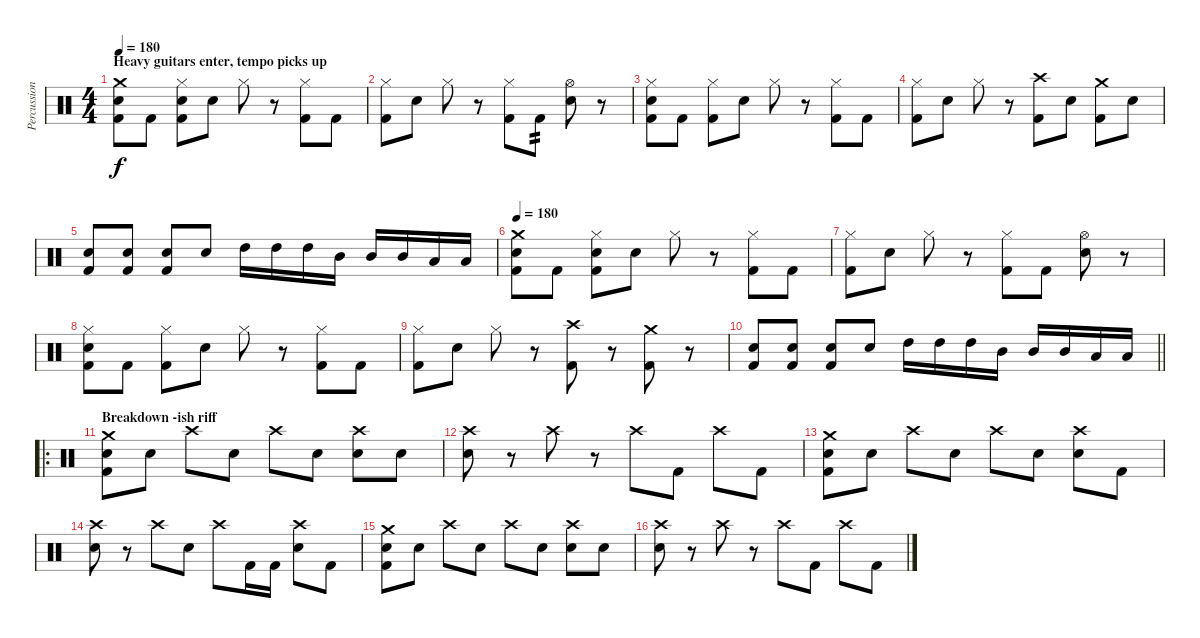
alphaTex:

\track ("Percussion" "Percussion") {instrument percussion}
\staff {score}
\articulation defaults
\ts (4 4)
\section ("" "Heavy guitars enter, tempo picks up")
\tempo 180
\clef neutral
\ks c
("Crash medium (hit)" "Snare (hit) 2" "Kick (hit) 2").8{dy f} "Kick (hit) 2".8 ("Hi-Hat (closed)" "Snare (hit) 2" "Kick (hit) 2").8 "Electric Snare (hit)".8 "Hi-Hat (closed)".8 r.8 ("Hi-Hat (closed)" "Kick (hit) 2").8 "Kick (hit) 2".8 |
("Hi-Hat (closed)" "Kick (hit) 2").8 "Electric Snare (hit)".8 "Hi-Hat (closed)".8 r.8 ("Hi-Hat (closed)" "Kick (hit) 2").8 "Kick (hit) 2".8{tp 2} ("Hi-Hat (open)" "Electric Snare (hit)").8 r.8 |
("Hi-Hat (closed)" "Snare (hit) 2" "Kick (hit) 2").8 "Kick (hit) 2".8 ("Hi-Hat (closed)" "Kick (hit) 2").8 "Electric Snare (hit)".8 "Hi-Hat (closed)".8 r.8 ("Hi-Hat (closed)" "Kick (hit) 2").8 "Kick (hit) 2".8 |
("Hi-Hat (closed)" "Kick (hit) 2").8 "Electric Snare (hit)".8 "Hi-Hat (closed)".8 r.8 ("Crash high (hit)" "Kick (hit) 2").8 "Snare (hit) 2".8 ("Crash medium (hit)" "Kick (hit) 2").8 "Snare (hit) 2".8 |
("Snare (hit) 2" "Kick (hit) 2").8 ("Snare (hit) 2" "Kick (hit) 2").8 ("Snare (hit) 2" "Kick (hit) 2").8 "Electric Snare (hit)".8 "High Tom (hit)".16 "High Tom (hit)".16 "High Tom (hit)".16 "Mid Tom (hit)".16 "Mid Tom (hit)".16 "Mid Tom (hit)".16 "Low Tom (hit)".16 "Low Tom (hit)".16 |
\tempo 180
("Crash medium (hit)" "Snare (hit) 2" "Kick (hit) 2").8 "Kick (hit) 2".8 ("Hi-Hat (closed)" "Snare (hit) 2" "Kick (hit) 2").8 "Electric Snare (hit)".8 "Hi-Hat (closed)".8 r.8 ("Hi-Hat (closed)" "Kick (hit) 2").8 "Kick (hit) 2".8 |
("Hi-Hat (closed)" "Kick (hit) 2").8 "Electric Snare (hit)".8 "Hi-Hat (closed)".8 r.8 ("Hi-Hat (closed)" "Kick (hit) 2").8 "Kick (hit) 2".8 ("Hi-Hat (open)" "Electric Snare (hit)").8 r.8 |
("Hi-Hat (closed)" "Snare (hit) 2" "Kick (hit) 2").8 "Kick (hit) 2".8 ("Hi-Hat (closed)" "Kick (hit) 2").8 "Electric Snare (hit)".8 "Hi-Hat (closed)".8 r.8 ("Hi-Hat (closed)" "Kick (hit) 2").8 "Kick (hit) 2".8 |
("Hi-Hat (closed)" "Kick (hit) 2").8 "Electric Snare (hit)".8 "Hi-Hat (closed)".8 r.8 ("Crash high (hit)" "Kick (hit) 2").8 r.8 ("Crash medium (hit)" "Kick (hit) 2").8 r.8 |
\barLineRight lightlight
("Snare (hit) 2" "Kick (hit) 2").8 ("Snare (hit) 2" "Kick (hit) 2").8 ("Snare (hit) 2" "Kick (hit) 2").8 "Electric Snare (hit)".8 "High Tom (hit)".16 "High Tom (hit)".16 "High Tom (hit)".16 "Mid Tom (hit)".16 "Mid Tom (hit)".16 "Mid Tom (hit)".16 "Low Tom (hit)".16 "Low Tom (hit)".16 |
\ro
\section ("" "Breakdown -ish riff")
("Snare (hit) 2" "Crash medium (hit)" "Kick (hit) 2").8 "Snare (hit) 2".8 "Crash high (hit)".8 "Snare (hit) 2".8 "Crash high (hit)".8 "Snare (hit) 2".8 ("Crash high (hit)" "Snare (hit) 2").8 "Snare (hit) 2".8 |
("Crash high (hit)" "Electric Snare (hit)").8 r.8 "Crash high (hit)".8 r.8 "Crash high (hit)".8 "Kick (hit) 2".8 "Crash high (hit)".8 "Kick (hit) 2".8 |
("Snare (hit) 2" "Crash medium (hit)" "Kick (hit) 2").8 "Snare (hit) 2".8 "Crash high (hit)".8 "Snare (hit) 2".8 "Crash high (hit)".8 "Snare (hit) 2".8 ("Crash high (hit)" "Snare (hit) 2").8 "Kick (hit) 2".8 |
("Crash high (hit)" "Electric Snare (hit)").8 r.8 "Crash high (hit)".8 "Electric Snare (hit)".8 "Crash high (hit)".8 "Kick (hit) 2".16 "Kick (hit) 2".16 ("Crash high (hit)" "Electric Snare (hit)").8 "Kick (hit) 2".8 |
("Snare (hit) 2" "Crash medium (hit)" "Kick (hit) 2").8 "Snare (hit) 2".8 "Crash high (hit)".8 "Snare (hit) 2".8 "Crash high (hit)".8 "Snare (hit) 2".8 ("Crash high (hit)" "Snare (hit) 2").8 "Snare (hit) 2".8 |
("Crash high (hit)" "Electric Snare (hit)").8 r.8 "Crash high (hit)".8 r.8 "Crash high (hit)".8 "Kick (hit) 2".8 "Crash high (hit)".8 "Kick (hit) 2".8
